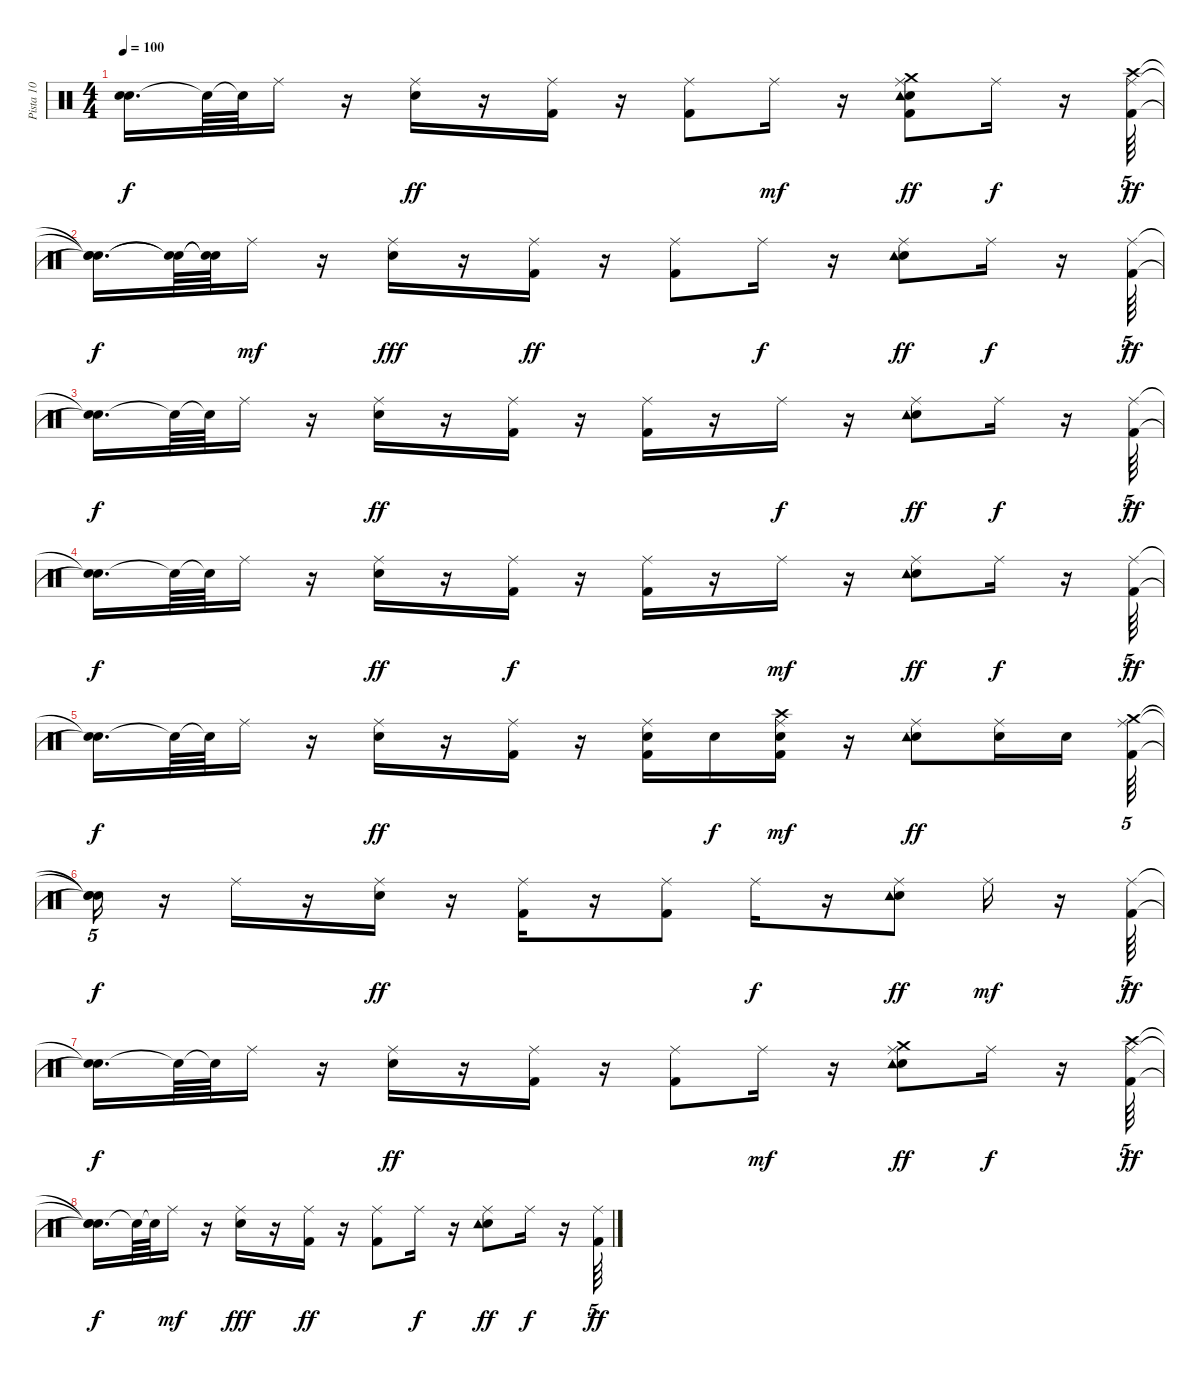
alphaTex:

\track ("Pista 10" "Pista 10") {instrument percussion}
\staff {score}
\articulation defaults
\ts (4 4)
\tempo 100
\clef neutral
\ks c
("Snare (hit)"{t} "Snare (hit)"{t}).16{d dy f} "Snare (hit)"{t}.64 "Snare (hit)"{t}.64 "Ride (middle)".16 r.16 ("Ride (middle)" "Snare (hit) 2").16{dy ff} r.16 ("Ride (middle)" "Kick (hit) 2").16 r.16 ("Ride (middle)" "Kick (hit) 2").8 "Ride (middle)".16{dy mf} r.16 ("Kick (hit) 2" "Crash medium (hit)" "Ride (middle)" "Snare (hit) 2" "Tambourine (hit)").8{dy ff} "Ride (middle)".16{dy f} r.16 ("Crash high (hit)" "Ride (middle)" "Kick (hit) 2").64{tu (5 4) dy ff} |
("Snare (hit)"{t} "Snare (hit)"{t} "Snare (hit)"{t}).16{d dy f} ("Snare (hit)"{t} "Snare (hit)"{t}).64 ("Snare (hit)"{t} "Snare (hit)"{t}).64 "Ride (middle)".16{dy mf} r.16 ("Ride (middle)" "Snare (hit) 2").16{dy fff} r.16 ("Ride (middle)" "Kick (hit) 2").16{dy ff} r.16 ("Ride (middle)" "Kick (hit) 2").8 "Ride (middle)".16{dy f} r.16 ("Ride (middle)" "Snare (hit) 2" "Tambourine (hit)").8{dy ff} "Ride (middle)".16{dy f} r.16 ("Ride (middle)" "Kick (hit) 2").64{tu (5 4) dy ff} |
("Snare (hit)"{t} "Snare (hit)"{t}).16{d dy f} "Snare (hit)"{t}.64 "Snare (hit)"{t}.64 "Ride (middle)".16 r.16 ("Ride (middle)" "Snare (hit) 2").16{dy ff} r.16 ("Ride (middle)" "Kick (hit) 2").16 r.16 ("Ride (middle)" "Kick (hit) 2").16 r.16 "Ride (middle)".16{dy f} r.16 ("Ride (middle)" "Snare (hit) 2" "Tambourine (hit)").8{dy ff} "Ride (middle)".16{dy f} r.16 ("Ride (middle)" "Kick (hit) 2").64{tu (5 4) dy ff} |
("Snare (hit)"{t} "Snare (hit)"{t}).16{d dy f} "Snare (hit)"{t}.64 "Snare (hit)"{t}.64 "Ride (middle)".16 r.16 ("Ride (middle)" "Snare (hit) 2").16{dy ff} r.16 ("Ride (middle)" "Kick (hit) 2").16{dy f} r.16 ("Ride (middle)" "Kick (hit) 2").16 r.16 "Ride (middle)".16{dy mf} r.16 ("Ride (middle)" "Snare (hit) 2" "Tambourine (hit)").8{dy ff} "Ride (middle)".16{dy f} r.16 ("Ride (middle)" "Kick (hit) 2").64{tu (5 4) dy ff} |
("Snare (hit)"{t} "Snare (hit)"{t}).16{d dy f} "Snare (hit)"{t}.64 "Snare (hit)"{t}.64 "Ride (middle)".16 r.16 ("Ride (middle)" "Snare (hit) 2").16{dy ff} r.16 ("Ride (middle)" "Kick (hit) 2").16 r.16 ("Snare (hit) 2" "Ride (middle)" "Kick (hit) 2").16 "Snare (hit) 2".16{dy f} ("Ride (middle)" "Crash high (hit)" "Kick (hit) 2" "Snare (hit) 2").16{dy mf} r.16 ("Ride (middle)" "Snare (hit) 2" "Tambourine (hit)").8{dy ff} ("Ride (middle)" "Snare (hit) 2").16 "Snare (hit) 2".16 ("Crash medium (hit)" "Ride (middle)" "Kick (hit) 2").64{tu (5 4)} |
("Snare (hit)"{t} "Snare (hit)"{t} "Snare (hit)"{t}).16{tu (5 4) dy f} r.16 "Ride (middle)".16 r.16 ("Ride (middle)" "Snare (hit) 2").16{dy ff} r.16 ("Ride (middle)" "Kick (hit) 2").16 r.16 ("Ride (middle)" "Kick (hit) 2").8 "Ride (middle)".16{dy f} r.16 ("Ride (middle)" "Snare (hit) 2" "Tambourine (hit)").8{dy ff} "Ride (middle)".16{dy mf} r.16 ("Ride (middle)" "Kick (hit) 2").64{tu (5 4) dy ff} |
("Snare (hit)"{t} "Snare (hit)"{t}).16{d dy f} "Snare (hit)"{t}.64 "Snare (hit)"{t}.64 "Ride (middle)".16 r.16 ("Ride (middle)" "Snare (hit) 2").16{dy ff} r.16 ("Ride (middle)" "Kick (hit) 2").16 r.16 ("Ride (middle)" "Kick (hit) 2").8 "Ride (middle)".16{dy mf} r.16 ("Crash medium (hit)" "Ride (middle)" "Snare (hit) 2" "Tambourine (hit)").8{dy ff} "Ride (middle)".16{dy f} r.16 ("Crash high (hit)" "Ride (middle)" "Kick (hit) 2").64{tu (5 4) dy ff} |
("Snare (hit)"{t} "Snare (hit)"{t} "Snare (hit)"{t}).16{d dy f} "Snare (hit)"{t}.64 "Snare (hit)"{t}.64 "Ride (middle)".16{dy mf} r.16 ("Ride (middle)" "Snare (hit) 2").16{dy fff} r.16 ("Ride (middle)" "Kick (hit) 2").16{dy ff} r.16 ("Ride (middle)" "Kick (hit) 2").8 "Ride (middle)".16{dy f} r.16 ("Ride (middle)" "Snare (hit) 2" "Tambourine (hit)").8{dy ff} "Ride (middle)".16{dy f} r.16 ("Ride (middle)" "Kick (hit) 2").64{tu (5 4) dy ff}
